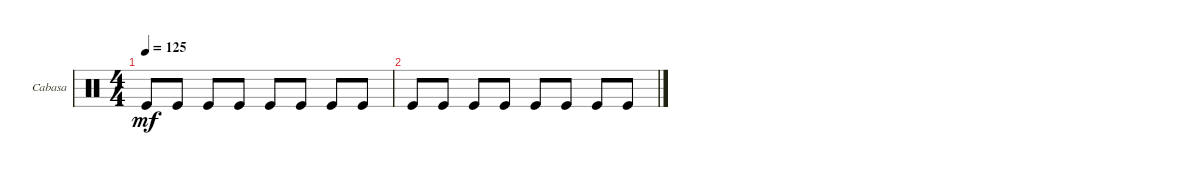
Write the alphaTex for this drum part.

\defaultSystemsLayout 4
\bracketExtendMode groupsimilarinstruments
\firstSystemTrackNameOrientation horizontal
\otherSystemsTrackNameOrientation horizontal
\track ("Cabasa" "Cabasa") {instrument percussion}
\staff {score}
\articulation defaults
\ts (4 4)
\tempo 125
\clef neutral
\ks c "Kick (hit)".8{dy mf} "Kick (hit)".8 "Kick (hit)".8 "Kick (hit)".8 "Kick (hit)".8 "Kick (hit)".8 "Kick (hit)".8 "Kick (hit)".8
|
"Kick (hit)".8 "Kick (hit)".8 "Kick (hit)".8 "Kick (hit)".8 "Kick (hit)".8 "Kick (hit)".8 "Kick (hit)".8 "Kick (hit)".8
